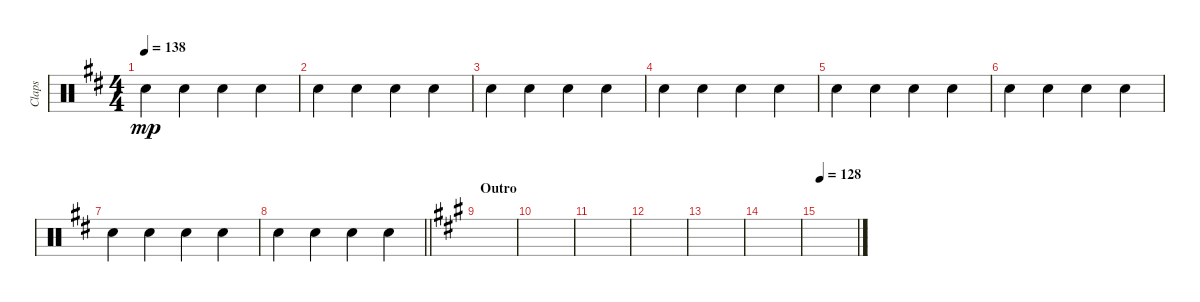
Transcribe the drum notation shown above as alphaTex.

\track ("Claps" "Claps") {instrument percussion}
\staff {score}
\articulation defaults
\ts (4 4)
\tempo 138
\clef neutral
\ks d "Hand Clap (hit)".4{dy mp} "Hand Clap (hit)".4 "Hand Clap (hit)".4 "Hand Clap (hit)".4
|
"Hand Clap (hit)".4 "Hand Clap (hit)".4 "Hand Clap (hit)".4 "Hand Clap (hit)".4 |
"Hand Clap (hit)".4 "Hand Clap (hit)".4 "Hand Clap (hit)".4 "Hand Clap (hit)".4 |
"Hand Clap (hit)".4 "Hand Clap (hit)".4 "Hand Clap (hit)".4 "Hand Clap (hit)".4 |
"Hand Clap (hit)".4 "Hand Clap (hit)".4 "Hand Clap (hit)".4 "Hand Clap (hit)".4 |
"Hand Clap (hit)".4 "Hand Clap (hit)".4 "Hand Clap (hit)".4 "Hand Clap (hit)".4 |
"Hand Clap (hit)".4 "Hand Clap (hit)".4 "Hand Clap (hit)".4 "Hand Clap (hit)".4 |
\barLineRight lightlight "Hand Clap (hit)".4 "Hand Clap (hit)".4 "Hand Clap (hit)".4 "Hand Clap (hit)".4
|
\section ("" "Outro")
\ks a
|
|
|
|
|
|
\tempo 128
